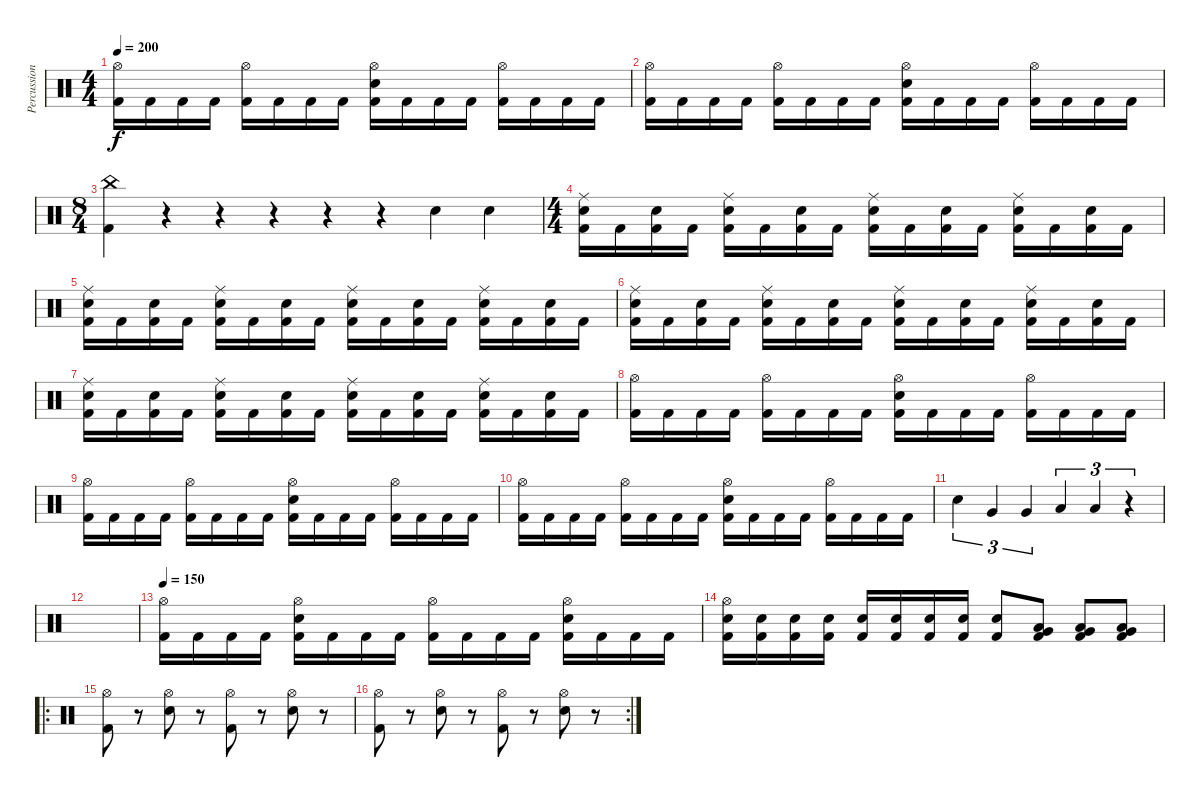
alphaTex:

\track ("Percussions" "Percussion") {instrument percussion}
\staff {score}
\articulation defaults
\ts (4 4)
\tempo 200
\clef neutral
\ks c
("Hi-Hat (open)" "Kick (hit) 2").16{dy f} "Kick (hit) 2".16 "Kick (hit) 2".16 "Kick (hit) 2".16 ("Hi-Hat (open)" "Kick (hit) 2").16 "Kick (hit) 2".16 "Kick (hit) 2".16 "Kick (hit) 2".16 ("Hi-Hat (open)" "Snare (hit) 2" "Kick (hit) 2").16 "Kick (hit) 2".16 "Kick (hit) 2".16 "Kick (hit) 2".16 ("Hi-Hat (open)" "Kick (hit) 2").16 "Kick (hit) 2".16 "Kick (hit) 2".16 "Kick (hit) 2".16 |
("Hi-Hat (open)" "Kick (hit) 2").16 "Kick (hit) 2".16 "Kick (hit) 2".16 "Kick (hit) 2".16 ("Hi-Hat (open)" "Kick (hit) 2").16 "Kick (hit) 2".16 "Kick (hit) 2".16 "Kick (hit) 2".16 ("Hi-Hat (open)" "Snare (hit) 2" "Kick (hit) 2").16 "Kick (hit) 2".16 "Kick (hit) 2".16 "Kick (hit) 2".16 ("Hi-Hat (open)" "Kick (hit) 2").16 "Kick (hit) 2".16 "Kick (hit) 2".16 "Kick (hit) 2".16 |
\ts (8 4)
("China (hit)" "Kick (hit) 2").4 r.4 r.4 r.4 r.4 r.4 "Snare (hit) 2".4 "Snare (hit) 2".4 |
\ts (4 4)
("Ride (middle)" "Snare (hit) 2" "Kick (hit) 2").16 "Kick (hit) 2".16 ("Snare (hit) 2" "Kick (hit) 2").16 "Kick (hit) 2".16 ("Ride (middle)" "Snare (hit) 2" "Kick (hit) 2").16 "Kick (hit) 2".16 ("Snare (hit) 2" "Kick (hit) 2").16 "Kick (hit) 2".16 ("Ride (middle)" "Snare (hit) 2" "Kick (hit) 2").16 "Kick (hit) 2".16 ("Snare (hit) 2" "Kick (hit) 2").16 "Kick (hit) 2".16 ("Ride (middle)" "Snare (hit) 2" "Kick (hit) 2").16 "Kick (hit) 2".16 ("Snare (hit) 2" "Kick (hit) 2").16 "Kick (hit) 2".16 |
("Ride (middle)" "Snare (hit) 2" "Kick (hit) 2").16 "Kick (hit) 2".16 ("Snare (hit) 2" "Kick (hit) 2").16 "Kick (hit) 2".16 ("Ride (middle)" "Snare (hit) 2" "Kick (hit) 2").16 "Kick (hit) 2".16 ("Snare (hit) 2" "Kick (hit) 2").16 "Kick (hit) 2".16 ("Ride (middle)" "Snare (hit) 2" "Kick (hit) 2").16 "Kick (hit) 2".16 ("Snare (hit) 2" "Kick (hit) 2").16 "Kick (hit) 2".16 ("Ride (middle)" "Snare (hit) 2" "Kick (hit) 2").16 "Kick (hit) 2".16 ("Snare (hit) 2" "Kick (hit) 2").16 "Kick (hit) 2".16 |
("Ride (middle)" "Snare (hit) 2" "Kick (hit) 2").16 "Kick (hit) 2".16 ("Snare (hit) 2" "Kick (hit) 2").16 "Kick (hit) 2".16 ("Ride (middle)" "Snare (hit) 2" "Kick (hit) 2").16 "Kick (hit) 2".16 ("Snare (hit) 2" "Kick (hit) 2").16 "Kick (hit) 2".16 ("Ride (middle)" "Snare (hit) 2" "Kick (hit) 2").16 "Kick (hit) 2".16 ("Snare (hit) 2" "Kick (hit) 2").16 "Kick (hit) 2".16 ("Ride (middle)" "Snare (hit) 2" "Kick (hit) 2").16 "Kick (hit) 2".16 ("Snare (hit) 2" "Kick (hit) 2").16 "Kick (hit) 2".16 |
("Ride (middle)" "Snare (hit) 2" "Kick (hit) 2").16 "Kick (hit) 2".16 ("Snare (hit) 2" "Kick (hit) 2").16 "Kick (hit) 2".16 ("Ride (middle)" "Snare (hit) 2" "Kick (hit) 2").16 "Kick (hit) 2".16 ("Snare (hit) 2" "Kick (hit) 2").16 "Kick (hit) 2".16 ("Ride (middle)" "Snare (hit) 2" "Kick (hit) 2").16 "Kick (hit) 2".16 ("Snare (hit) 2" "Kick (hit) 2").16 "Kick (hit) 2".16 ("Ride (middle)" "Snare (hit) 2" "Kick (hit) 2").16 "Kick (hit) 2".16 ("Snare (hit) 2" "Kick (hit) 2").16 "Kick (hit) 2".16 |
("Hi-Hat (open)" "Kick (hit) 2").16 "Kick (hit) 2".16 "Kick (hit) 2".16 "Kick (hit) 2".16 ("Hi-Hat (open)" "Kick (hit) 2").16 "Kick (hit) 2".16 "Kick (hit) 2".16 "Kick (hit) 2".16 ("Hi-Hat (open)" "Snare (hit) 2" "Kick (hit) 2").16 "Kick (hit) 2".16 "Kick (hit) 2".16 "Kick (hit) 2".16 ("Hi-Hat (open)" "Kick (hit) 2").16 "Kick (hit) 2".16 "Kick (hit) 2".16 "Kick (hit) 2".16 |
("Hi-Hat (open)" "Kick (hit) 2").16 "Kick (hit) 2".16 "Kick (hit) 2".16 "Kick (hit) 2".16 ("Hi-Hat (open)" "Kick (hit) 2").16 "Kick (hit) 2".16 "Kick (hit) 2".16 "Kick (hit) 2".16 ("Hi-Hat (open)" "Snare (hit) 2" "Kick (hit) 2").16 "Kick (hit) 2".16 "Kick (hit) 2".16 "Kick (hit) 2".16 ("Hi-Hat (open)" "Kick (hit) 2").16 "Kick (hit) 2".16 "Kick (hit) 2".16 "Kick (hit) 2".16 |
("Hi-Hat (open)" "Kick (hit) 2").16 "Kick (hit) 2".16 "Kick (hit) 2".16 "Kick (hit) 2".16 ("Hi-Hat (open)" "Kick (hit) 2").16 "Kick (hit) 2".16 "Kick (hit) 2".16 "Kick (hit) 2".16 ("Hi-Hat (open)" "Snare (hit) 2" "Kick (hit) 2").16 "Kick (hit) 2".16 "Kick (hit) 2".16 "Kick (hit) 2".16 ("Hi-Hat (open)" "Kick (hit) 2").16 "Kick (hit) 2".16 "Kick (hit) 2".16 "Kick (hit) 2".16 |
"Snare (hit) 2".4{tu (3 2)} "Very Low Tom (hit)".4{tu (3 2)} "Very Low Tom (hit)".4{tu (3 2)} "Low Tom (hit)".4{tu (3 2)} "Low Tom (hit)".4{tu (3 2)} r.4{tu (3 2)} |
|
\tempo 150
("Hi-Hat (open)" "Kick (hit) 2").16 "Kick (hit) 2".16 "Kick (hit) 2".16 "Kick (hit) 2".16 ("Hi-Hat (open)" "Snare (hit) 2" "Kick (hit) 2").16 "Kick (hit) 2".16 "Kick (hit) 2".16 "Kick (hit) 2".16 ("Hi-Hat (open)" "Kick (hit) 2").16 "Kick (hit) 2".16 "Kick (hit) 2".16 "Kick (hit) 2".16 ("Hi-Hat (open)" "Snare (hit) 2" "Kick (hit) 2").16 "Kick (hit) 2".16 "Kick (hit) 2".16 "Kick (hit) 2".16 |
("Hi-Hat (open)" "Snare (hit) 2" "Kick (hit) 2").16 ("Snare (hit) 2" "Kick (hit) 2").16 ("Snare (hit) 2" "Kick (hit) 2").16 ("Snare (hit) 2" "Kick (hit) 2").16 ("Snare (hit) 2" "Kick (hit) 2").16 ("Snare (hit) 2" "Kick (hit) 2").16 ("Snare (hit) 2" "Kick (hit) 2").16 ("Snare (hit) 2" "Kick (hit) 2").16 ("Snare (hit) 2" "Kick (hit) 2").8 ("Very Low Tom (hit)" "Low Tom (hit)" "Kick (hit) 2").8 ("Very Low Tom (hit)" "Low Tom (hit)" "Kick (hit) 2").8 ("Very Low Tom (hit)" "Low Tom (hit)" "Kick (hit) 2").8 |
\ro
("Hi-Hat (open)" "Kick (hit) 2").8 r.8 ("Hi-Hat (open)" "Snare (hit) 2").8 r.8 ("Hi-Hat (open)" "Kick (hit) 2").8 r.8 ("Hi-Hat (open)" "Snare (hit) 2").8 r.8 |
\rc 2
("Hi-Hat (open)" "Kick (hit) 2").8 r.8 ("Hi-Hat (open)" "Snare (hit) 2").8 r.8 ("Hi-Hat (open)" "Kick (hit) 2").8 r.8 ("Hi-Hat (open)" "Snare (hit) 2").8 r.8
